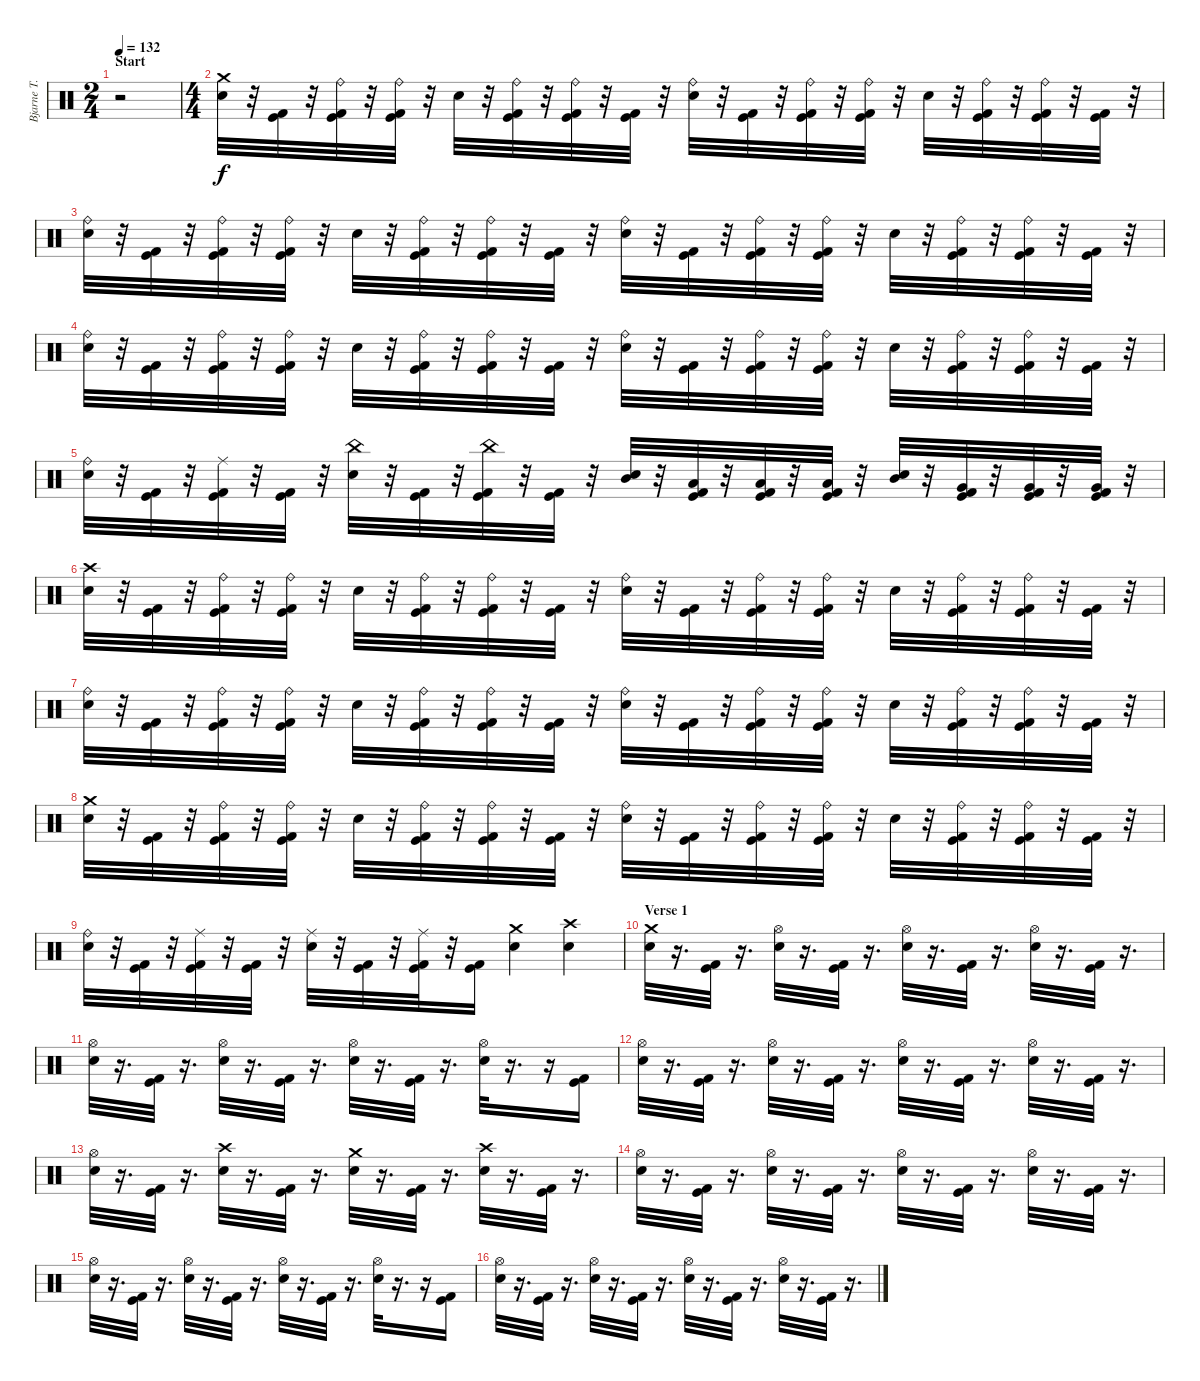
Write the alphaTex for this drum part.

\track ("Bjarne T. Holme" "Bjarne T. ") {instrument percussion}
\staff {score}
\articulation defaults
\ts (2 4)
\section ("" "Start")
\tempo 132
\clef neutral
\ks c
r.2{dy f} |
\ts (4 4)
("Crash medium (hit)" "Snare (hit) 2").32 r.32 ("Kick (hit)" "Kick (hit) 2").32 r.32 ("Ride (bell)" "Kick (hit)" "Kick (hit) 2").32 r.32 ("Ride (bell)" "Kick (hit)" "Kick (hit) 2").32 r.32 "Snare (hit) 2".32 r.32 ("Ride (bell)" "Kick (hit)" "Kick (hit) 2").32 r.32 ("Ride (bell)" "Kick (hit)" "Kick (hit) 2").32 r.32 ("Kick (hit)" "Kick (hit) 2").32 r.32 ("Ride (bell)" "Snare (hit) 2").32 r.32 ("Kick (hit)" "Kick (hit) 2").32 r.32 ("Ride (bell)" "Kick (hit)" "Kick (hit) 2").32 r.32 ("Ride (bell)" "Kick (hit)" "Kick (hit) 2").32 r.32 "Snare (hit) 2".32 r.32 ("Ride (bell)" "Kick (hit)" "Kick (hit) 2").32 r.32 ("Ride (bell)" "Kick (hit)" "Kick (hit) 2").32 r.32 ("Kick (hit)" "Kick (hit) 2").32 r.32 |
("Ride (bell)" "Snare (hit) 2").32 r.32 ("Kick (hit)" "Kick (hit) 2").32 r.32 ("Ride (bell)" "Kick (hit)" "Kick (hit) 2").32 r.32 ("Ride (bell)" "Kick (hit)" "Kick (hit) 2").32 r.32 "Snare (hit) 2".32 r.32 ("Ride (bell)" "Kick (hit)" "Kick (hit) 2").32 r.32 ("Ride (bell)" "Kick (hit)" "Kick (hit) 2").32 r.32 ("Kick (hit)" "Kick (hit) 2").32 r.32 ("Ride (bell)" "Snare (hit) 2").32 r.32 ("Kick (hit)" "Kick (hit) 2").32 r.32 ("Ride (bell)" "Kick (hit)" "Kick (hit) 2").32 r.32 ("Ride (bell)" "Kick (hit)" "Kick (hit) 2").32 r.32 "Snare (hit) 2".32 r.32 ("Ride (bell)" "Kick (hit)" "Kick (hit) 2").32 r.32 ("Ride (bell)" "Kick (hit)" "Kick (hit) 2").32 r.32 ("Kick (hit)" "Kick (hit) 2").32 r.32 |
("Ride (bell)" "Snare (hit) 2").32 r.32 ("Kick (hit)" "Kick (hit) 2").32 r.32 ("Ride (bell)" "Kick (hit)" "Kick (hit) 2").32 r.32 ("Ride (bell)" "Kick (hit)" "Kick (hit) 2").32 r.32 "Snare (hit) 2".32 r.32 ("Ride (bell)" "Kick (hit)" "Kick (hit) 2").32 r.32 ("Ride (bell)" "Kick (hit)" "Kick (hit) 2").32 r.32 ("Kick (hit)" "Kick (hit) 2").32 r.32 ("Ride (bell)" "Snare (hit) 2").32 r.32 ("Kick (hit)" "Kick (hit) 2").32 r.32 ("Ride (bell)" "Kick (hit)" "Kick (hit) 2").32 r.32 ("Ride (bell)" "Kick (hit)" "Kick (hit) 2").32 r.32 "Snare (hit) 2".32 r.32 ("Ride (bell)" "Kick (hit)" "Kick (hit) 2").32 r.32 ("Ride (bell)" "Kick (hit)" "Kick (hit) 2").32 r.32 ("Kick (hit)" "Kick (hit) 2").32 r.32 |
("Ride (bell)" "Snare (hit) 2").32 r.32 ("Kick (hit)" "Kick (hit) 2").32 r.32 ("Ride (middle)" "Kick (hit)" "Kick (hit) 2").32 r.32 ("Kick (hit)" "Kick (hit) 2").32 r.32 ("China (hit)" "Snare (hit) 2").32 r.32 ("Kick (hit)" "Kick (hit) 2").32 r.32 ("China (hit)" "Kick (hit)" "Kick (hit) 2").32 r.32 ("Kick (hit)" "Kick (hit) 2").32 r.32 ("Mid Tom (hit)" "Snare (hit) 2").32 r.32 ("Low Tom (hit)" "Kick (hit)" "Kick (hit) 2").32 r.32 ("Low Tom (hit)" "Kick (hit)" "Kick (hit) 2").32 r.32 ("Low Tom (hit)" "Kick (hit)" "Kick (hit) 2").32 r.32 ("Mid Tom (hit)" "Snare (hit) 2").32 r.32 ("Very Low Tom (hit)" "Kick (hit)" "Kick (hit) 2").32 r.32 ("Very Low Tom (hit)" "Kick (hit)" "Kick (hit) 2").32 r.32 ("Very Low Tom (hit)" "Kick (hit)" "Kick (hit) 2").32 r.32 |
("Crash high (hit)" "Snare (hit) 2").32 r.32 ("Kick (hit)" "Kick (hit) 2").32 r.32 ("Ride (bell)" "Kick (hit)" "Kick (hit) 2").32 r.32 ("Ride (bell)" "Kick (hit)" "Kick (hit) 2").32 r.32 "Snare (hit) 2".32 r.32 ("Ride (bell)" "Kick (hit)" "Kick (hit) 2").32 r.32 ("Ride (bell)" "Kick (hit)" "Kick (hit) 2").32 r.32 ("Kick (hit)" "Kick (hit) 2").32 r.32 ("Ride (bell)" "Snare (hit) 2").32 r.32 ("Kick (hit)" "Kick (hit) 2").32 r.32 ("Ride (bell)" "Kick (hit)" "Kick (hit) 2").32 r.32 ("Ride (bell)" "Kick (hit)" "Kick (hit) 2").32 r.32 "Snare (hit) 2".32 r.32 ("Ride (bell)" "Kick (hit)" "Kick (hit) 2").32 r.32 ("Ride (bell)" "Kick (hit)" "Kick (hit) 2").32 r.32 ("Kick (hit)" "Kick (hit) 2").32 r.32 |
("Ride (bell)" "Snare (hit) 2").32 r.32 ("Kick (hit)" "Kick (hit) 2").32 r.32 ("Ride (bell)" "Kick (hit)" "Kick (hit) 2").32 r.32 ("Ride (bell)" "Kick (hit)" "Kick (hit) 2").32 r.32 "Snare (hit) 2".32 r.32 ("Ride (bell)" "Kick (hit)" "Kick (hit) 2").32 r.32 ("Ride (bell)" "Kick (hit)" "Kick (hit) 2").32 r.32 ("Kick (hit)" "Kick (hit) 2").32 r.32 ("Ride (bell)" "Snare (hit) 2").32 r.32 ("Kick (hit)" "Kick (hit) 2").32 r.32 ("Ride (bell)" "Kick (hit)" "Kick (hit) 2").32 r.32 ("Ride (bell)" "Kick (hit)" "Kick (hit) 2").32 r.32 "Snare (hit) 2".32 r.32 ("Ride (bell)" "Kick (hit)" "Kick (hit) 2").32 r.32 ("Ride (bell)" "Kick (hit)" "Kick (hit) 2").32 r.32 ("Kick (hit)" "Kick (hit) 2").32 r.32 |
("Crash medium (hit)" "Snare (hit) 2").32 r.32 ("Kick (hit)" "Kick (hit) 2").32 r.32 ("Ride (bell)" "Kick (hit)" "Kick (hit) 2").32 r.32 ("Ride (bell)" "Kick (hit)" "Kick (hit) 2").32 r.32 "Snare (hit) 2".32 r.32 ("Ride (bell)" "Kick (hit)" "Kick (hit) 2").32 r.32 ("Ride (bell)" "Kick (hit)" "Kick (hit) 2").32 r.32 ("Kick (hit)" "Kick (hit) 2").32 r.32 ("Ride (bell)" "Snare (hit) 2").32 r.32 ("Kick (hit)" "Kick (hit) 2").32 r.32 ("Ride (bell)" "Kick (hit)" "Kick (hit) 2").32 r.32 ("Ride (bell)" "Kick (hit)" "Kick (hit) 2").32 r.32 "Snare (hit) 2".32 r.32 ("Ride (bell)" "Kick (hit)" "Kick (hit) 2").32 r.32 ("Ride (bell)" "Kick (hit)" "Kick (hit) 2").32 r.32 ("Kick (hit)" "Kick (hit) 2").32 r.32 |
("Ride (bell)" "Snare (hit) 2").32 r.32 ("Kick (hit)" "Kick (hit) 2").32 r.32 ("Ride (middle)" "Kick (hit)" "Kick (hit) 2").32 r.32 ("Kick (hit)" "Kick (hit) 2").32 r.32 ("Ride (middle)" "Snare (hit) 2").32 r.32 ("Kick (hit)" "Kick (hit) 2").32 r.32 ("Ride (middle)" "Kick (hit)" "Kick (hit) 2").32 r.32 ("Kick (hit)" "Kick (hit) 2").16 ("Crash medium (hit)" "Snare (hit) 2").4 ("Crash high (hit)" "Snare (hit) 2").4 |
\section ("" "Verse 1")
("Crash medium (hit)" "Snare (hit) 2").32 r.16{d} ("Kick (hit)" "Kick (hit) 2").32 r.16{d} ("Hi-Hat (open)" "Snare (hit) 2").32 r.16{d} ("Kick (hit)" "Kick (hit) 2").32 r.16{d} ("Hi-Hat (open)" "Snare (hit) 2").32 r.16{d} ("Kick (hit)" "Kick (hit) 2").32 r.16{d} ("Hi-Hat (open)" "Snare (hit) 2").32 r.16{d} ("Kick (hit)" "Kick (hit) 2").32 r.16{d} |
("Hi-Hat (open)" "Snare (hit) 2").32 r.16{d} ("Kick (hit)" "Kick (hit) 2").32 r.16{d} ("Hi-Hat (open)" "Snare (hit) 2").32 r.16{d} ("Kick (hit)" "Kick (hit) 2").32 r.16{d} ("Hi-Hat (open)" "Snare (hit) 2").32 r.16{d} ("Kick (hit)" "Kick (hit) 2").32 r.16{d} ("Hi-Hat (open)" "Snare (hit) 2").32 r.16{d} r.16 ("Kick (hit)" "Kick (hit) 2").16 |
("Hi-Hat (open)" "Snare (hit) 2").32 r.16{d} ("Kick (hit)" "Kick (hit) 2").32 r.16{d} ("Hi-Hat (open)" "Snare (hit) 2").32 r.16{d} ("Kick (hit)" "Kick (hit) 2").32 r.16{d} ("Hi-Hat (open)" "Snare (hit) 2").32 r.16{d} ("Kick (hit)" "Kick (hit) 2").32 r.16{d} ("Hi-Hat (open)" "Snare (hit) 2").32 r.16{d} ("Kick (hit)" "Kick (hit) 2").32 r.16{d} |
("Hi-Hat (open)" "Snare (hit) 2").32 r.16{d} ("Kick (hit)" "Kick (hit) 2").32 r.16{d} ("Crash high (hit)" "Snare (hit) 2").32 r.16{d} ("Kick (hit)" "Kick (hit) 2").32 r.16{d} ("Crash medium (hit)" "Snare (hit) 2").32 r.16{d} ("Kick (hit)" "Kick (hit) 2").32 r.16{d} ("Crash high (hit)" "Snare (hit) 2").32 r.16{d} ("Kick (hit)" "Kick (hit) 2").32 r.16{d} |
("Hi-Hat (open)" "Snare (hit) 2").32 r.16{d} ("Kick (hit)" "Kick (hit) 2").32 r.16{d} ("Hi-Hat (open)" "Snare (hit) 2").32 r.16{d} ("Kick (hit)" "Kick (hit) 2").32 r.16{d} ("Hi-Hat (open)" "Snare (hit) 2").32 r.16{d} ("Kick (hit)" "Kick (hit) 2").32 r.16{d} ("Hi-Hat (open)" "Snare (hit) 2").32 r.16{d} ("Kick (hit)" "Kick (hit) 2").32 r.16{d} |
("Hi-Hat (open)" "Snare (hit) 2").32 r.16{d} ("Kick (hit)" "Kick (hit) 2").32 r.16{d} ("Hi-Hat (open)" "Snare (hit) 2").32 r.16{d} ("Kick (hit)" "Kick (hit) 2").32 r.16{d} ("Hi-Hat (open)" "Snare (hit) 2").32 r.16{d} ("Kick (hit)" "Kick (hit) 2").32 r.16{d} ("Hi-Hat (open)" "Snare (hit) 2").32 r.16{d} r.16 ("Kick (hit)" "Kick (hit) 2").16 |
("Hi-Hat (open)" "Snare (hit) 2").32 r.16{d} ("Kick (hit)" "Kick (hit) 2").32 r.16{d} ("Hi-Hat (open)" "Snare (hit) 2").32 r.16{d} ("Kick (hit)" "Kick (hit) 2").32 r.16{d} ("Hi-Hat (open)" "Snare (hit) 2").32 r.16{d} ("Kick (hit)" "Kick (hit) 2").32 r.16{d} ("Hi-Hat (open)" "Snare (hit) 2").32 r.16{d} ("Kick (hit)" "Kick (hit) 2").32 r.16{d}
